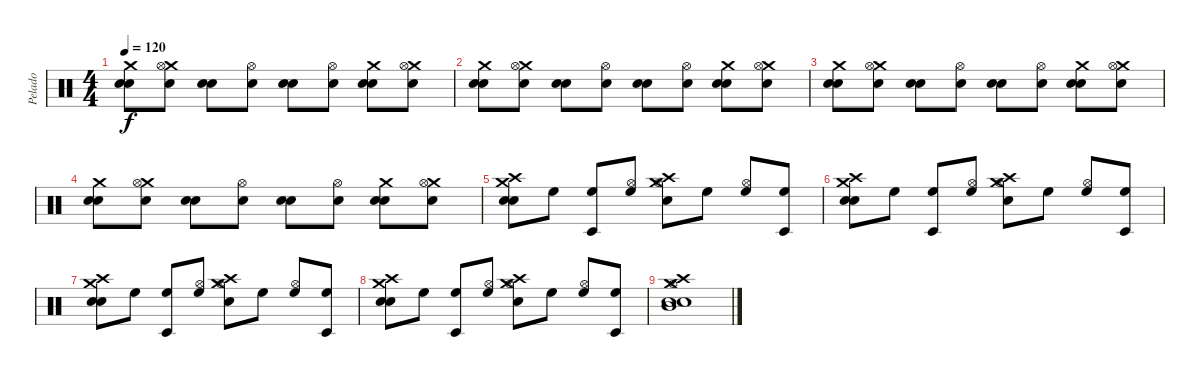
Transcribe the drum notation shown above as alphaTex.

\track ("Pelado" "Pelado") {instrument percussion}
\staff {score}
\articulation defaults
\ts (4 4)
\tempo 120
\clef neutral
\ks c
("Crash medium (hit)" "Electric Snare (hit)" "Electric Snare (hit)").8{dy f} ("Crash medium (hit)" "Hi-Hat (open)" "Electric Snare (hit)").8 ("Electric Snare (hit)" "Electric Snare (hit)").8 ("Electric Snare (hit)" "Hi-Hat (open)").8 ("Electric Snare (hit)" "Electric Snare (hit)").8 ("Electric Snare (hit)" "Hi-Hat (open)").8 ("Crash medium (hit)" "Electric Snare (hit)" "Electric Snare (hit)").8 ("Crash medium (hit)" "Electric Snare (hit)" "Hi-Hat (open)").8 |
("Crash medium (hit)" "Electric Snare (hit)" "Electric Snare (hit)").8 ("Crash medium (hit)" "Hi-Hat (open)" "Electric Snare (hit)").8 ("Electric Snare (hit)" "Electric Snare (hit)").8 ("Electric Snare (hit)" "Hi-Hat (open)").8 ("Electric Snare (hit)" "Electric Snare (hit)").8 ("Electric Snare (hit)" "Hi-Hat (open)").8 ("Crash medium (hit)" "Electric Snare (hit)" "Electric Snare (hit)").8 ("Crash medium (hit)" "Electric Snare (hit)" "Hi-Hat (open)").8 |
("Crash medium (hit)" "Electric Snare (hit)" "Electric Snare (hit)").8 ("Crash medium (hit)" "Hi-Hat (open)" "Electric Snare (hit)").8 ("Electric Snare (hit)" "Electric Snare (hit)").8 ("Electric Snare (hit)" "Hi-Hat (open)").8 ("Electric Snare (hit)" "Electric Snare (hit)").8 ("Electric Snare (hit)" "Hi-Hat (open)").8 ("Crash medium (hit)" "Electric Snare (hit)" "Electric Snare (hit)").8 ("Crash medium (hit)" "Electric Snare (hit)" "Hi-Hat (open)").8 |
("Crash medium (hit)" "Electric Snare (hit)" "Electric Snare (hit)").8 ("Crash medium (hit)" "Hi-Hat (open)" "Electric Snare (hit)").8 ("Electric Snare (hit)" "Electric Snare (hit)").8 ("Electric Snare (hit)" "Hi-Hat (open)").8 ("Electric Snare (hit)" "Electric Snare (hit)").8 ("Electric Snare (hit)" "Hi-Hat (open)").8 ("Crash medium (hit)" "Electric Snare (hit)" "Electric Snare (hit)").8 ("Crash medium (hit)" "Electric Snare (hit)" "Hi-Hat (open)").8 |
("Crash high (hit)" "Crash medium (hit)" "Electric Snare (hit)" "Electric Snare (hit)").8 "High Floor Tom (hit)".8 ("High Floor Tom (hit)" "Timbale low (hit)").8 ("High Floor Tom (hit)" "Hi-Hat (open)").8 ("Crash high (hit)" "Crash medium (hit)" "Electric Snare (hit)" "Hi-Hat (open)").8 "High Floor Tom (hit)".8 ("High Floor Tom (hit)" "Hi-Hat (open)").8 ("High Floor Tom (hit)" "Timbale low (hit)").8 |
("Crash high (hit)" "Crash medium (hit)" "Electric Snare (hit)" "Electric Snare (hit)").8 "High Floor Tom (hit)".8 ("High Floor Tom (hit)" "Timbale low (hit)").8 ("High Floor Tom (hit)" "Hi-Hat (open)").8 ("Crash high (hit)" "Crash medium (hit)" "Electric Snare (hit)" "Hi-Hat (open)").8 "High Floor Tom (hit)".8 ("High Floor Tom (hit)" "Hi-Hat (open)").8 ("High Floor Tom (hit)" "Timbale low (hit)").8 |
("Crash high (hit)" "Crash medium (hit)" "Electric Snare (hit)" "Electric Snare (hit)").8 "High Floor Tom (hit)".8 ("High Floor Tom (hit)" "Timbale low (hit)").8 ("High Floor Tom (hit)" "Hi-Hat (open)").8 ("Crash high (hit)" "Crash medium (hit)" "Electric Snare (hit)" "Hi-Hat (open)").8 "High Floor Tom (hit)".8 ("High Floor Tom (hit)" "Hi-Hat (open)").8 ("High Floor Tom (hit)" "Timbale low (hit)").8 |
("Crash high (hit)" "Crash medium (hit)" "Electric Snare (hit)" "Electric Snare (hit)").8 "High Floor Tom (hit)".8 ("High Floor Tom (hit)" "Timbale low (hit)").8 ("High Floor Tom (hit)" "Hi-Hat (open)").8 ("Crash high (hit)" "Crash medium (hit)" "Electric Snare (hit)" "Hi-Hat (open)").8 "High Floor Tom (hit)".8 ("High Floor Tom (hit)" "Hi-Hat (open)").8 ("High Floor Tom (hit)" "Timbale low (hit)").8 |
("Mid Tom (hit)" "Crash medium (hit)" "Crash high (hit)" "Hi-Hat (open)" "Electric Snare (hit)" "Electric Snare (hit)").1
